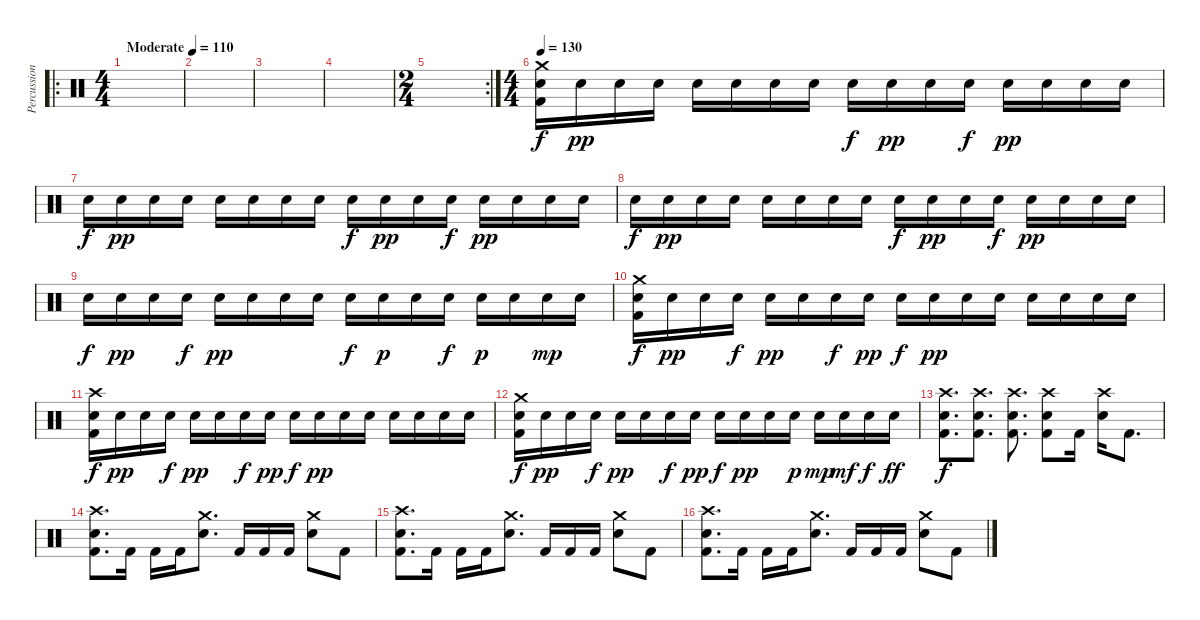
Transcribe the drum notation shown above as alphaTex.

\track ("Percussion" "Percussion") {instrument percussion}
\staff {score}
\articulation defaults
\ro
\ts (4 4)
\tempo (110 "Moderate")
\clef neutral
\ks c
|
|
|
|
\rc 2
\ts (2 4)
|
\ts (4 4)
\tempo 130
("Crash medium (hit)" "Electric Snare (hit)" "Kick (hit) 2").16 "Electric Snare (hit)".16{dy pp} "Electric Snare (hit)".16 "Electric Snare (hit)".16 "Electric Snare (hit)".16 "Electric Snare (hit)".16 "Electric Snare (hit)".16 "Electric Snare (hit)".16 "Electric Snare (hit)".16{dy f} "Electric Snare (hit)".16{dy pp} "Electric Snare (hit)".16 "Electric Snare (hit)".16{dy f} "Electric Snare (hit)".16{dy pp} "Electric Snare (hit)".16 "Electric Snare (hit)".16 "Electric Snare (hit)".16 |
"Electric Snare (hit)".16{dy f} "Electric Snare (hit)".16{dy pp} "Electric Snare (hit)".16 "Electric Snare (hit)".16 "Electric Snare (hit)".16 "Electric Snare (hit)".16 "Electric Snare (hit)".16 "Electric Snare (hit)".16 "Electric Snare (hit)".16{dy f} "Electric Snare (hit)".16{dy pp} "Electric Snare (hit)".16 "Electric Snare (hit)".16{dy f} "Electric Snare (hit)".16{dy pp} "Electric Snare (hit)".16 "Electric Snare (hit)".16 "Electric Snare (hit)".16 |
"Electric Snare (hit)".16{dy f} "Electric Snare (hit)".16{dy pp} "Electric Snare (hit)".16 "Electric Snare (hit)".16 "Electric Snare (hit)".16 "Electric Snare (hit)".16 "Electric Snare (hit)".16 "Electric Snare (hit)".16 "Electric Snare (hit)".16{dy f} "Electric Snare (hit)".16{dy pp} "Electric Snare (hit)".16 "Electric Snare (hit)".16{dy f} "Electric Snare (hit)".16{dy pp} "Electric Snare (hit)".16 "Electric Snare (hit)".16 "Electric Snare (hit)".16 |
"Electric Snare (hit)".16{dy f} "Electric Snare (hit)".16{dy pp} "Electric Snare (hit)".16 "Electric Snare (hit)".16{dy f} "Electric Snare (hit)".16{dy pp} "Electric Snare (hit)".16 "Electric Snare (hit)".16 "Electric Snare (hit)".16 "Electric Snare (hit)".16{dy f} "Electric Snare (hit)".16{dy p} "Electric Snare (hit)".16 "Electric Snare (hit)".16{dy f} "Electric Snare (hit)".16{dy p} "Electric Snare (hit)".16 "Electric Snare (hit)".16{dy mp} "Electric Snare (hit)".16 |
("Crash medium (hit)" "Electric Snare (hit)" "Kick (hit) 2").16{dy f} "Electric Snare (hit)".16{dy pp} "Electric Snare (hit)".16 "Electric Snare (hit)".16{dy f} "Electric Snare (hit)".16{dy pp} "Electric Snare (hit)".16 "Electric Snare (hit)".16{dy f} "Electric Snare (hit)".16{dy pp} "Electric Snare (hit)".16{dy f} "Electric Snare (hit)".16{dy pp} "Electric Snare (hit)".16 "Electric Snare (hit)".16 "Electric Snare (hit)".16 "Electric Snare (hit)".16 "Electric Snare (hit)".16 "Electric Snare (hit)".16 |
("Crash high (hit)" "Electric Snare (hit)" "Kick (hit) 2").16{dy f} "Electric Snare (hit)".16{dy pp} "Electric Snare (hit)".16 "Electric Snare (hit)".16{dy f} "Electric Snare (hit)".16{dy pp} "Electric Snare (hit)".16 "Electric Snare (hit)".16{dy f} "Electric Snare (hit)".16{dy pp} "Electric Snare (hit)".16{dy f} "Electric Snare (hit)".16{dy pp} "Electric Snare (hit)".16 "Electric Snare (hit)".16 "Electric Snare (hit)".16 "Electric Snare (hit)".16 "Electric Snare (hit)".16 "Electric Snare (hit)".16 |
("Crash medium (hit)" "Electric Snare (hit)" "Kick (hit) 2").16{dy f} "Electric Snare (hit)".16{dy pp} "Electric Snare (hit)".16 "Electric Snare (hit)".16{dy f} "Electric Snare (hit)".16{dy pp} "Electric Snare (hit)".16 "Electric Snare (hit)".16{dy f} "Electric Snare (hit)".16{dy pp} "Electric Snare (hit)".16{dy f} "Electric Snare (hit)".16{dy pp} "Electric Snare (hit)".16 "Electric Snare (hit)".16{dy p} "Electric Snare (hit)".16{dy mp} "Electric Snare (hit)".16{dy mf} "Electric Snare (hit)".16{dy f} "Electric Snare (hit)".16{dy ff} |
("Crash high (hit)" "Electric Snare (hit)" "Kick (hit) 2").8{d dy f} ("Crash high (hit)" "Electric Snare (hit)" "Kick (hit) 2").8{d} ("Crash high (hit)" "Electric Snare (hit)" "Kick (hit) 2").8{d} ("Crash high (hit)" "Electric Snare (hit)" "Kick (hit) 2").8 "Kick (hit) 2".16 ("Crash high (hit)" "Electric Snare (hit)").16 "Kick (hit) 2".8{d} |
("Crash high (hit)" "Electric Snare (hit)" "Kick (hit) 2").8{d} "Kick (hit) 2".16 "Kick (hit) 2".16 "Kick (hit) 2".16 ("Crash medium (hit)" "Electric Snare (hit)").8{d} "Kick (hit) 2".16 "Kick (hit) 2".16 "Kick (hit) 2".16 ("Crash medium (hit)" "Electric Snare (hit)").8 "Kick (hit) 2".8 |
("Crash high (hit)" "Electric Snare (hit)" "Kick (hit) 2").8{d} "Kick (hit) 2".16 "Kick (hit) 2".16 "Kick (hit) 2".16 ("Crash medium (hit)" "Electric Snare (hit)").8{d} "Kick (hit) 2".16 "Kick (hit) 2".16 "Kick (hit) 2".16 ("Crash medium (hit)" "Electric Snare (hit)").8 "Kick (hit) 2".8 |
("Crash high (hit)" "Electric Snare (hit)" "Kick (hit) 2").8{d} "Kick (hit) 2".16 "Kick (hit) 2".16 "Kick (hit) 2".16 ("Crash medium (hit)" "Electric Snare (hit)").8{d} "Kick (hit) 2".16 "Kick (hit) 2".16 "Kick (hit) 2".16 ("Crash medium (hit)" "Electric Snare (hit)").8 "Kick (hit) 2".8
